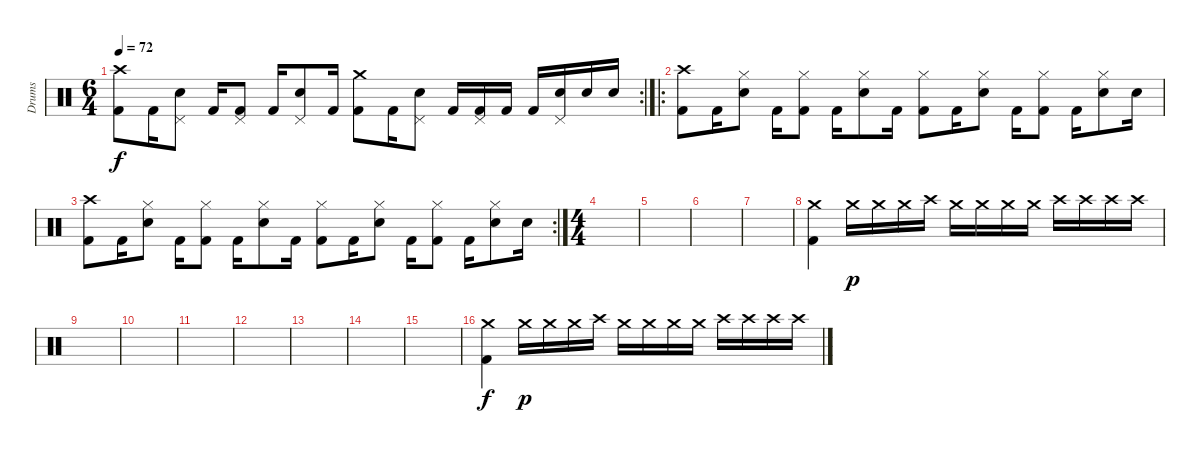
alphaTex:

\track ("Drums" "Drums") {instrument percussion}
\staff {score}
\articulation defaults
\rc 2
\ts (6 4)
\tempo 72
\clef neutral
\ks c
("Crash high (hit)" "Kick (hit) 2").8{dy f} "Kick (hit) 2".16 ("Pedal Hi-Hat (hit)" "Electric Snare (hit)").8 "Kick (hit) 2".16 ("Pedal Hi-Hat (hit)" "Kick (hit) 2").8 "Kick (hit) 2".16 ("Pedal Hi-Hat (hit)" "Electric Snare (hit)").8 "Kick (hit) 2".16 ("Crash medium (hit)" "Kick (hit) 2").8 "Kick (hit) 2".16 ("Pedal Hi-Hat (hit)" "Electric Snare (hit)").8 "Kick (hit) 2".16 ("Pedal Hi-Hat (hit)" "Kick (hit) 2").16 "Kick (hit) 2".16 "Kick (hit) 2".16 ("Pedal Hi-Hat (hit)" "Electric Snare (hit)").16 "Electric Snare (hit)".16 "Electric Snare (hit)".16 |
\ro
("Crash high (hit)" "Kick (hit) 2").8 "Kick (hit) 2".16 ("Hi-Hat (closed)" "Electric Snare (hit)").8 "Kick (hit) 2".16 ("Hi-Hat (closed)" "Kick (hit) 2").8 "Kick (hit) 2".16 ("Hi-Hat (closed)" "Electric Snare (hit)").8 "Kick (hit) 2".16 ("Hi-Hat (closed)" "Kick (hit) 2").8 "Kick (hit) 2".16 ("Hi-Hat (closed)" "Electric Snare (hit)").8 "Kick (hit) 2".16 ("Hi-Hat (closed)" "Kick (hit) 2").8 "Kick (hit) 2".16 ("Hi-Hat (closed)" "Electric Snare (hit)").8 "Electric Snare (hit)".16 |
\rc 2
("Crash high (hit)" "Kick (hit) 2").8 "Kick (hit) 2".16 ("Hi-Hat (closed)" "Electric Snare (hit)").8 "Kick (hit) 2".16 ("Hi-Hat (closed)" "Kick (hit) 2").8 "Kick (hit) 2".16 ("Hi-Hat (closed)" "Electric Snare (hit)").8 "Kick (hit) 2".16 ("Hi-Hat (closed)" "Kick (hit) 2").8 "Kick (hit) 2".16 ("Hi-Hat (closed)" "Electric Snare (hit)").8 "Kick (hit) 2".16 ("Hi-Hat (closed)" "Kick (hit) 2").8 "Kick (hit) 2".16 ("Hi-Hat (closed)" "Electric Snare (hit)").8 "Electric Snare (hit)".16 |
\ts (4 4)
|
|
|
|
("Crash medium (hit)" "Kick (hit) 2").4 "Crash medium (hit)".16{dy p} "Crash medium (hit)".16 "Crash medium (hit)".16 "Crash high (hit)".16 "Crash medium (hit)".16 "Crash medium (hit)".16 "Crash medium (hit)".16 "Crash medium (hit)".16 "Crash high (hit)".16 "Crash high (hit)".16 "Crash high (hit)".16 "Crash high (hit)".16 |
|
|
|
|
|
|
|
("Crash medium (hit)" "Kick (hit) 2").4{dy f} "Crash medium (hit)".16{dy p} "Crash medium (hit)".16 "Crash medium (hit)".16 "Crash high (hit)".16 "Crash medium (hit)".16 "Crash medium (hit)".16 "Crash medium (hit)".16 "Crash medium (hit)".16 "Crash high (hit)".16 "Crash high (hit)".16 "Crash high (hit)".16 "Crash high (hit)".16
